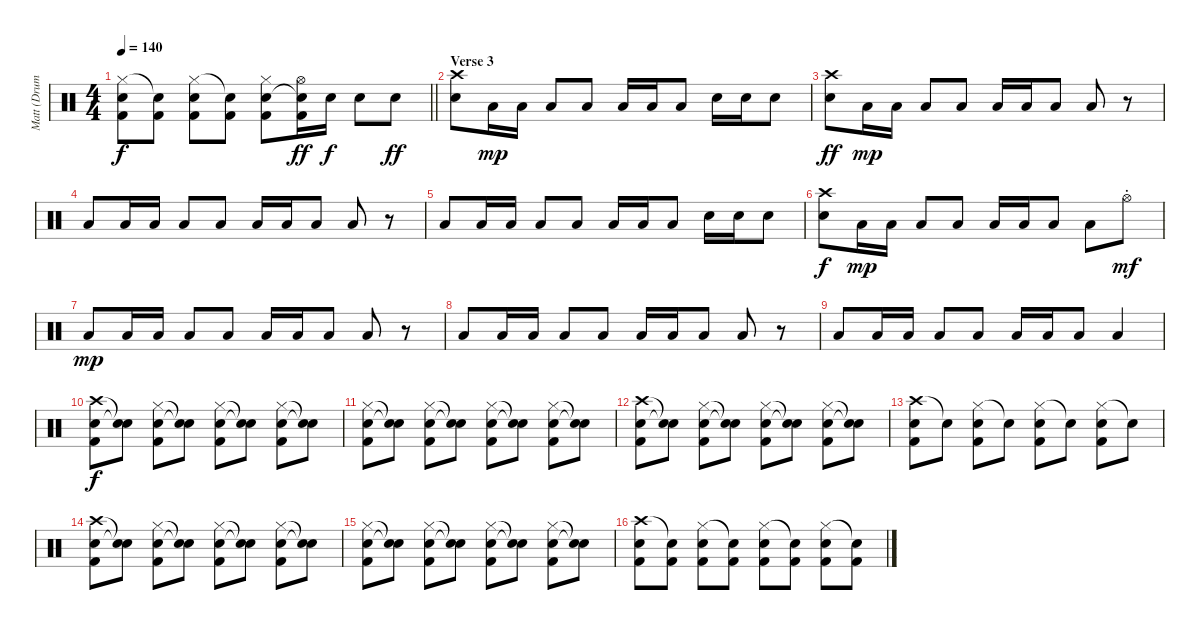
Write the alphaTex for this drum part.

\track ("Matt (Drums)" "Matt (Drum") {instrument percussion}
\staff {score}
\articulation defaults
\ts (4 4)
\tempo 140
\clef neutral
\barLineRight lightlight
\ks c
("Hi-Hat (closed)" "Snare (hit) 2" "Kick (hit) 2").8{dy f} ("Snare (hit)"{t} "Kick (hit) 2").8 ("Hi-Hat (closed)" "Snare (hit) 2" "Kick (hit) 2").8 ("Snare (hit)"{t} "Kick (hit) 2").8 ("Hi-Hat (closed)" "Snare (hit) 2" "Kick (hit) 2").8 ("Hi-Hat (open)" "Snare (hit)"{t} "Kick (hit) 2").16{dy ff} "Snare (hit) 2".16{dy f} "Snare (hit) 2".8 "Snare (hit) 2".8{dy ff} |
\section ("" "Verse 3")
("Crash high (hit)" "Snare (hit) 2").8 "Low Floor Tom (hit)".16{dy mp} "Low Floor Tom (hit)".16 "Low Floor Tom (hit)".8 "Low Floor Tom (hit)".8 "Low Floor Tom (hit)".16 "Low Floor Tom (hit)".16 "Low Floor Tom (hit)".8 "Snare (hit) 2".16 "Snare (hit) 2".16 "Snare (hit) 2".8 |
("Crash high (hit)" "Snare (hit) 2").8{dy ff} "Low Floor Tom (hit)".16{dy mp} "Low Floor Tom (hit)".16 "Low Floor Tom (hit)".8 "Low Floor Tom (hit)".8 "Low Floor Tom (hit)".16 "Low Floor Tom (hit)".16 "Low Floor Tom (hit)".8 "Low Floor Tom (hit)".8 r.8 |
"Low Floor Tom (hit)".8 "Low Floor Tom (hit)".16 "Low Floor Tom (hit)".16 "Low Floor Tom (hit)".8 "Low Floor Tom (hit)".8 "Low Floor Tom (hit)".16 "Low Floor Tom (hit)".16 "Low Floor Tom (hit)".8 "Low Floor Tom (hit)".8 r.8 |
"Low Floor Tom (hit)".8 "Low Floor Tom (hit)".16 "Low Floor Tom (hit)".16 "Low Floor Tom (hit)".8 "Low Floor Tom (hit)".8 "Low Floor Tom (hit)".16 "Low Floor Tom (hit)".16 "Low Floor Tom (hit)".8 "Snare (hit) 2".16 "Snare (hit) 2".16 "Snare (hit) 2".8 |
("Crash high (hit)" "Snare (hit) 2").8{dy f} "Low Floor Tom (hit)".16{dy mp} "Low Floor Tom (hit)".16 "Low Floor Tom (hit)".8 "Low Floor Tom (hit)".8 "Low Floor Tom (hit)".16 "Low Floor Tom (hit)".16 "Low Floor Tom (hit)".8 "Low Floor Tom (hit)".8 "Hi-Hat (open)"{st}.8{dy mf} |
"Low Floor Tom (hit)".8{dy mp} "Low Floor Tom (hit)".16 "Low Floor Tom (hit)".16 "Low Floor Tom (hit)".8 "Low Floor Tom (hit)".8 "Low Floor Tom (hit)".16 "Low Floor Tom (hit)".16 "Low Floor Tom (hit)".8 "Low Floor Tom (hit)".8 r.8 |
"Low Floor Tom (hit)".8 "Low Floor Tom (hit)".16 "Low Floor Tom (hit)".16 "Low Floor Tom (hit)".8 "Low Floor Tom (hit)".8 "Low Floor Tom (hit)".16 "Low Floor Tom (hit)".16 "Low Floor Tom (hit)".8 "Low Floor Tom (hit)".8 r.8 |
"Low Floor Tom (hit)".8 "Low Floor Tom (hit)".16 "Low Floor Tom (hit)".16 "Low Floor Tom (hit)".8 "Low Floor Tom (hit)".8 "Low Floor Tom (hit)".16 "Low Floor Tom (hit)".16 "Low Floor Tom (hit)".8 "Low Floor Tom (hit)".4 |
("Crash high (hit)" "Snare (hit) 2" "Kick (hit) 2").8{dy f} ("Snare (hit)"{t} "Snare (hit)"{t}).8 ("Hi-Hat (closed)" "Snare (hit) 2" "Kick (hit) 2").8 ("Snare (hit)"{t} "Snare (hit)"{t}).8 ("Hi-Hat (closed)" "Snare (hit) 2" "Kick (hit) 2").8 ("Snare (hit)"{t} "Snare (hit)"{t}).8 ("Hi-Hat (closed)" "Snare (hit) 2" "Kick (hit) 2").8 ("Snare (hit)"{t} "Snare (hit)"{t}).8 |
("Hi-Hat (closed)" "Snare (hit) 2" "Kick (hit) 2").8 ("Snare (hit)"{t} "Snare (hit)"{t}).8 ("Hi-Hat (closed)" "Snare (hit) 2" "Kick (hit) 2").8 ("Snare (hit)"{t} "Snare (hit)"{t}).8 ("Hi-Hat (closed)" "Snare (hit) 2" "Kick (hit) 2").8 ("Snare (hit)"{t} "Snare (hit)"{t}).8 ("Hi-Hat (closed)" "Snare (hit) 2" "Kick (hit) 2").8 ("Snare (hit)"{t} "Snare (hit)"{t}).8 |
("Crash high (hit)" "Snare (hit) 2" "Kick (hit) 2").8 ("Snare (hit)"{t} "Snare (hit)"{t}).8 ("Hi-Hat (closed)" "Snare (hit) 2" "Kick (hit) 2").8 ("Snare (hit)"{t} "Snare (hit)"{t}).8 ("Hi-Hat (closed)" "Snare (hit) 2" "Kick (hit) 2").8 ("Snare (hit)"{t} "Snare (hit)"{t}).8 ("Hi-Hat (closed)" "Snare (hit) 2" "Kick (hit) 2").8 ("Snare (hit)"{t} "Snare (hit)"{t}).8 |
("Crash high (hit)" "Snare (hit) 2" "Kick (hit) 2").8 "Snare (hit)"{t}.8 ("Hi-Hat (closed)" "Snare (hit) 2" "Kick (hit) 2").8 "Snare (hit)"{t}.8 ("Hi-Hat (closed)" "Snare (hit) 2" "Kick (hit) 2").8 "Snare (hit)"{t}.8 ("Hi-Hat (closed)" "Snare (hit) 2" "Kick (hit) 2").8 "Snare (hit)"{t}.8 |
("Crash high (hit)" "Snare (hit) 2" "Kick (hit) 2").8 ("Snare (hit)"{t} "Snare (hit)"{t}).8 ("Hi-Hat (closed)" "Snare (hit) 2" "Kick (hit) 2").8 ("Snare (hit)"{t} "Snare (hit)"{t}).8 ("Hi-Hat (closed)" "Snare (hit) 2" "Kick (hit) 2").8 ("Snare (hit)"{t} "Snare (hit)"{t}).8 ("Hi-Hat (closed)" "Snare (hit) 2" "Kick (hit) 2").8 ("Snare (hit)"{t} "Snare (hit)"{t}).8 |
("Hi-Hat (closed)" "Snare (hit) 2" "Kick (hit) 2").8 ("Snare (hit)"{t} "Snare (hit)"{t}).8 ("Hi-Hat (closed)" "Snare (hit) 2" "Kick (hit) 2").8 ("Snare (hit)"{t} "Snare (hit)"{t}).8 ("Hi-Hat (closed)" "Snare (hit) 2" "Kick (hit) 2").8 ("Snare (hit)"{t} "Snare (hit)"{t}).8 ("Hi-Hat (closed)" "Snare (hit) 2" "Kick (hit) 2").8 ("Snare (hit)"{t} "Snare (hit)"{t}).8 |
("Crash high (hit)" "Snare (hit) 2" "Kick (hit) 2").8 ("Snare (hit)"{t} "Kick (hit) 2").8 ("Hi-Hat (closed)" "Snare (hit) 2" "Kick (hit) 2").8 ("Snare (hit)"{t} "Kick (hit) 2").8 ("Hi-Hat (closed)" "Snare (hit) 2" "Kick (hit) 2").8 ("Snare (hit)"{t} "Kick (hit) 2").8 ("Hi-Hat (closed)" "Snare (hit) 2" "Kick (hit) 2").8 ("Snare (hit)"{t} "Kick (hit) 2").8
